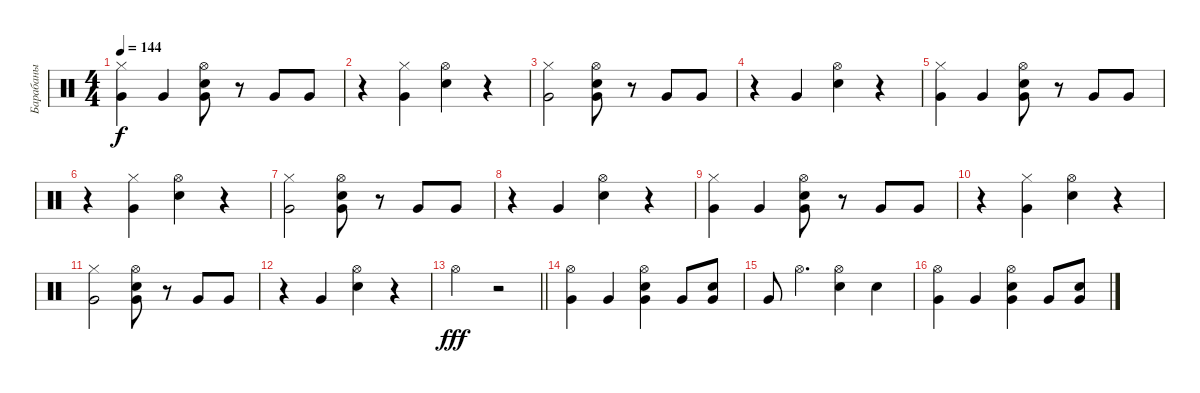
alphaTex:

\track ("Барабаны" "Барабаны") {instrument percussion}
\staff {score}
\articulation defaults
\ts (4 4)
\tempo 144
\clef neutral
\ks c
("Hi-Hat (closed)" "Very Low Tom (hit)").4{dy f} "Very Low Tom (hit)".4 ("Electric Snare (hit)" "Hi-Hat (open)" "Very Low Tom (hit)").8 r.8 "Very Low Tom (hit)".8 "Very Low Tom (hit)".8 |
r.4 ("Very Low Tom (hit)" "Hi-Hat (closed)").4 ("Snare (hit) 2" "Hi-Hat (open)").4 r.4 |
("Hi-Hat (closed)" "Very Low Tom (hit)").2 ("Electric Snare (hit)" "Hi-Hat (open)" "Very Low Tom (hit)").8 r.8 "Very Low Tom (hit)".8 "Very Low Tom (hit)".8 |
r.4 "Very Low Tom (hit)".4 ("Snare (hit) 2" "Hi-Hat (open)").4 r.4 |
("Hi-Hat (closed)" "Very Low Tom (hit)").4 "Very Low Tom (hit)".4 ("Electric Snare (hit)" "Hi-Hat (open)" "Very Low Tom (hit)").8 r.8 "Very Low Tom (hit)".8 "Very Low Tom (hit)".8 |
r.4 ("Very Low Tom (hit)" "Hi-Hat (closed)").4 ("Snare (hit) 2" "Hi-Hat (open)").4 r.4 |
("Hi-Hat (closed)" "Very Low Tom (hit)").2 ("Electric Snare (hit)" "Hi-Hat (open)" "Very Low Tom (hit)").8 r.8 "Very Low Tom (hit)".8 "Very Low Tom (hit)".8 |
r.4 "Very Low Tom (hit)".4 ("Snare (hit) 2" "Hi-Hat (open)").4 r.4 |
("Hi-Hat (closed)" "Very Low Tom (hit)").4 "Very Low Tom (hit)".4 ("Electric Snare (hit)" "Hi-Hat (open)" "Very Low Tom (hit)").8 r.8 "Very Low Tom (hit)".8 "Very Low Tom (hit)".8 |
r.4 ("Very Low Tom (hit)" "Hi-Hat (closed)").4 ("Snare (hit) 2" "Hi-Hat (open)").4 r.4 |
("Hi-Hat (closed)" "Very Low Tom (hit)").2 ("Electric Snare (hit)" "Hi-Hat (open)" "Very Low Tom (hit)").8 r.8 "Very Low Tom (hit)".8 "Very Low Tom (hit)".8 |
r.4 "Very Low Tom (hit)".4 ("Snare (hit) 2" "Hi-Hat (open)").4 r.4 |
\barLineRight lightlight "Hi-Hat (open)".2{dy fff}
r.2 |
("Very Low Tom (hit)" "Hi-Hat (open)").4 "Very Low Tom (hit)".4 ("Electric Snare (hit)" "Very Low Tom (hit)" "Hi-Hat (open)").4 "Very Low Tom (hit)".8 ("Electric Snare (hit)" "Very Low Tom (hit)").8 |
"Very Low Tom (hit)".8 "Hi-Hat (open)".4{d} ("Hi-Hat (open)" "Snare (hit) 2").4 "Snare (hit) 2".4 |
("Very Low Tom (hit)" "Hi-Hat (open)").4 "Very Low Tom (hit)".4 ("Electric Snare (hit)" "Very Low Tom (hit)" "Hi-Hat (open)").4 "Very Low Tom (hit)".8 ("Electric Snare (hit)" "Very Low Tom (hit)").8
